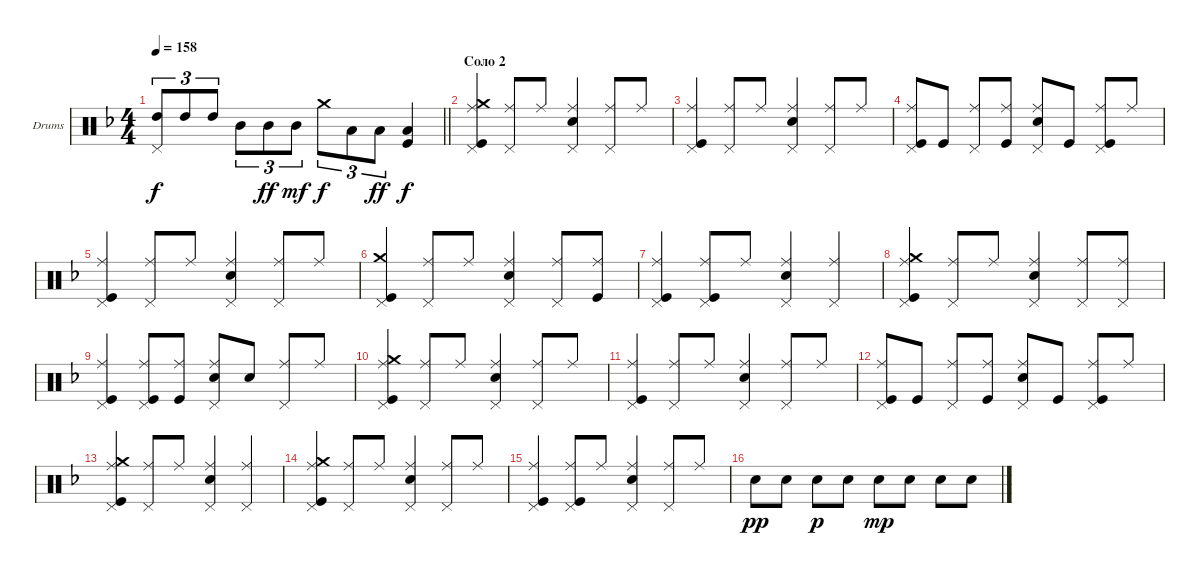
\bracketExtendMode groupsimilarinstruments
\firstSystemTrackNameOrientation horizontal
\otherSystemsTrackNameOrientation horizontal
\track ("Максим Удалов" "Drums") {instrument percussion}
\staff {score}
\articulation defaults
\ts (4 4)
\tempo 158
\clef neutral
\barLineRight lightlight
\ks dminor
("High Tom (hit)" "Pedal Hi-Hat (hit)").8{tu (3 2) dy f} "High Tom (hit)".8{tu (3 2)} "High Tom (hit)".8{tu (3 2)} "Mid Tom (hit)".8{tu (3 2)} "Mid Tom (hit)".8{tu (3 2) dy ff} "Mid Tom (hit)".8{tu (3 2) dy mf} "Crash medium (hit)".8{tu (3 2) dy f} "Low Tom (hit)".8{tu (3 2)} "Low Tom (hit)".8{tu (3 2) dy ff} ("Low Tom (hit)" "Kick (hit)").4{dy f} |
\section ("" "Соло 2")
("Crash medium (hit)" "Kick (hit)" "Ride (middle)" "Pedal Hi-Hat (hit)").4 ("Ride (middle)" "Pedal Hi-Hat (hit)").8 "Ride (middle)".8 ("Ride (middle)" "Snare (hit) 2" "Pedal Hi-Hat (hit)").4 ("Ride (middle)" "Pedal Hi-Hat (hit)").8 "Ride (middle)".8 |
("Ride (middle)" "Kick (hit)" "Pedal Hi-Hat (hit)").4 ("Ride (middle)" "Pedal Hi-Hat (hit)").8 "Ride (middle)".8 ("Ride (middle)" "Snare (hit) 2" "Pedal Hi-Hat (hit)").4 ("Ride (middle)" "Pedal Hi-Hat (hit)").8 "Ride (middle)".8 |
("Kick (hit)" "Ride (middle)" "Pedal Hi-Hat (hit)").8 "Kick (hit)".8 ("Ride (middle)" "Pedal Hi-Hat (hit)").8 ("Kick (hit)" "Ride (middle)").8 ("Snare (hit) 2" "Pedal Hi-Hat (hit)" "Ride (middle)").8 "Kick (hit)".8 ("Kick (hit)" "Pedal Hi-Hat (hit)" "Ride (middle)").8 "Ride (middle)".8 |
("Ride (middle)" "Kick (hit)" "Pedal Hi-Hat (hit)").4 ("Ride (middle)" "Pedal Hi-Hat (hit)").8 "Ride (middle)".8 ("Ride (middle)" "Snare (hit) 2" "Pedal Hi-Hat (hit)").4 ("Ride (middle)" "Pedal Hi-Hat (hit)").8 "Ride (middle)".8 |
("Crash medium (hit)" "Kick (hit)" "Pedal Hi-Hat (hit)").4 ("Ride (middle)" "Pedal Hi-Hat (hit)").8 "Ride (middle)".8 ("Ride (middle)" "Snare (hit) 2" "Pedal Hi-Hat (hit)").4 ("Ride (middle)" "Pedal Hi-Hat (hit)").8 ("Kick (hit)" "Ride (middle)").8 |
("Ride (middle)" "Kick (hit)" "Pedal Hi-Hat (hit)").4 ("Ride (middle)" "Kick (hit)" "Pedal Hi-Hat (hit)").8 "Ride (middle)".8 ("Ride (middle)" "Snare (hit) 2" "Pedal Hi-Hat (hit)").4 ("Ride (middle)" "Pedal Hi-Hat (hit)").4 |
("Kick (hit)" "Crash medium (hit)" "Ride (middle)" "Pedal Hi-Hat (hit)").4 ("Pedal Hi-Hat (hit)" "Ride (middle)").8 "Ride (middle)".8 ("Snare (hit) 2" "Ride (middle)" "Pedal Hi-Hat (hit)").4 ("Ride (middle)" "Pedal Hi-Hat (hit)").8 ("Pedal Hi-Hat (hit)" "Ride (middle)").8 |
("Pedal Hi-Hat (hit)" "Kick (hit)" "Ride (middle)").4 ("Kick (hit)" "Ride (middle)" "Pedal Hi-Hat (hit)").8 ("Kick (hit)" "Ride (middle)").8 ("Snare (hit) 2" "Ride (middle)" "Pedal Hi-Hat (hit)").8 "Snare (hit) 2".8 ("Ride (middle)" "Pedal Hi-Hat (hit)").8 "Ride (middle)".8 |
("Crash medium (hit)" "Kick (hit)" "Ride (middle)" "Pedal Hi-Hat (hit)").4 ("Ride (middle)" "Pedal Hi-Hat (hit)").8 "Ride (middle)".8 ("Ride (middle)" "Snare (hit) 2" "Pedal Hi-Hat (hit)").4 ("Ride (middle)" "Pedal Hi-Hat (hit)").8 "Ride (middle)".8 |
("Ride (middle)" "Kick (hit)" "Pedal Hi-Hat (hit)").4 ("Ride (middle)" "Pedal Hi-Hat (hit)").8 "Ride (middle)".8 ("Ride (middle)" "Snare (hit) 2" "Pedal Hi-Hat (hit)").4 ("Ride (middle)" "Pedal Hi-Hat (hit)").8 "Ride (middle)".8 |
("Kick (hit)" "Ride (middle)" "Pedal Hi-Hat (hit)").8 "Kick (hit)".8 ("Ride (middle)" "Pedal Hi-Hat (hit)").8 ("Kick (hit)" "Ride (middle)").8 ("Snare (hit) 2" "Pedal Hi-Hat (hit)" "Ride (middle)").8 "Kick (hit)".8 ("Kick (hit)" "Pedal Hi-Hat (hit)" "Ride (middle)").8 "Ride (middle)".8 |
("Crash medium (hit)" "Kick (hit)" "Pedal Hi-Hat (hit)" "Ride (middle)").4 ("Ride (middle)" "Pedal Hi-Hat (hit)").8 "Ride (middle)".8 ("Ride (middle)" "Snare (hit) 2" "Pedal Hi-Hat (hit)").4 ("Ride (middle)" "Pedal Hi-Hat (hit)").4 |
("Crash medium (hit)" "Kick (hit)" "Pedal Hi-Hat (hit)" "Ride (middle)").4 ("Ride (middle)" "Pedal Hi-Hat (hit)").8 "Ride (middle)".8 ("Ride (middle)" "Snare (hit) 2" "Pedal Hi-Hat (hit)").4 ("Ride (middle)" "Pedal Hi-Hat (hit)").8 "Ride (middle)".8 |
("Ride (middle)" "Kick (hit)" "Pedal Hi-Hat (hit)").4 ("Ride (middle)" "Kick (hit)" "Pedal Hi-Hat (hit)").8 "Ride (middle)".8 ("Ride (middle)" "Snare (hit) 2" "Pedal Hi-Hat (hit)").4 ("Ride (middle)" "Pedal Hi-Hat (hit)").8 "Ride (middle)".8 |
"Snare (hit) 2".8{dy pp} "Snare (hit) 2".8 "Snare (hit) 2".8{dy p} "Snare (hit) 2".8 "Snare (hit) 2".8{dy mp} "Snare (hit) 2".8 "Snare (hit) 2".8 "Snare (hit) 2".8
